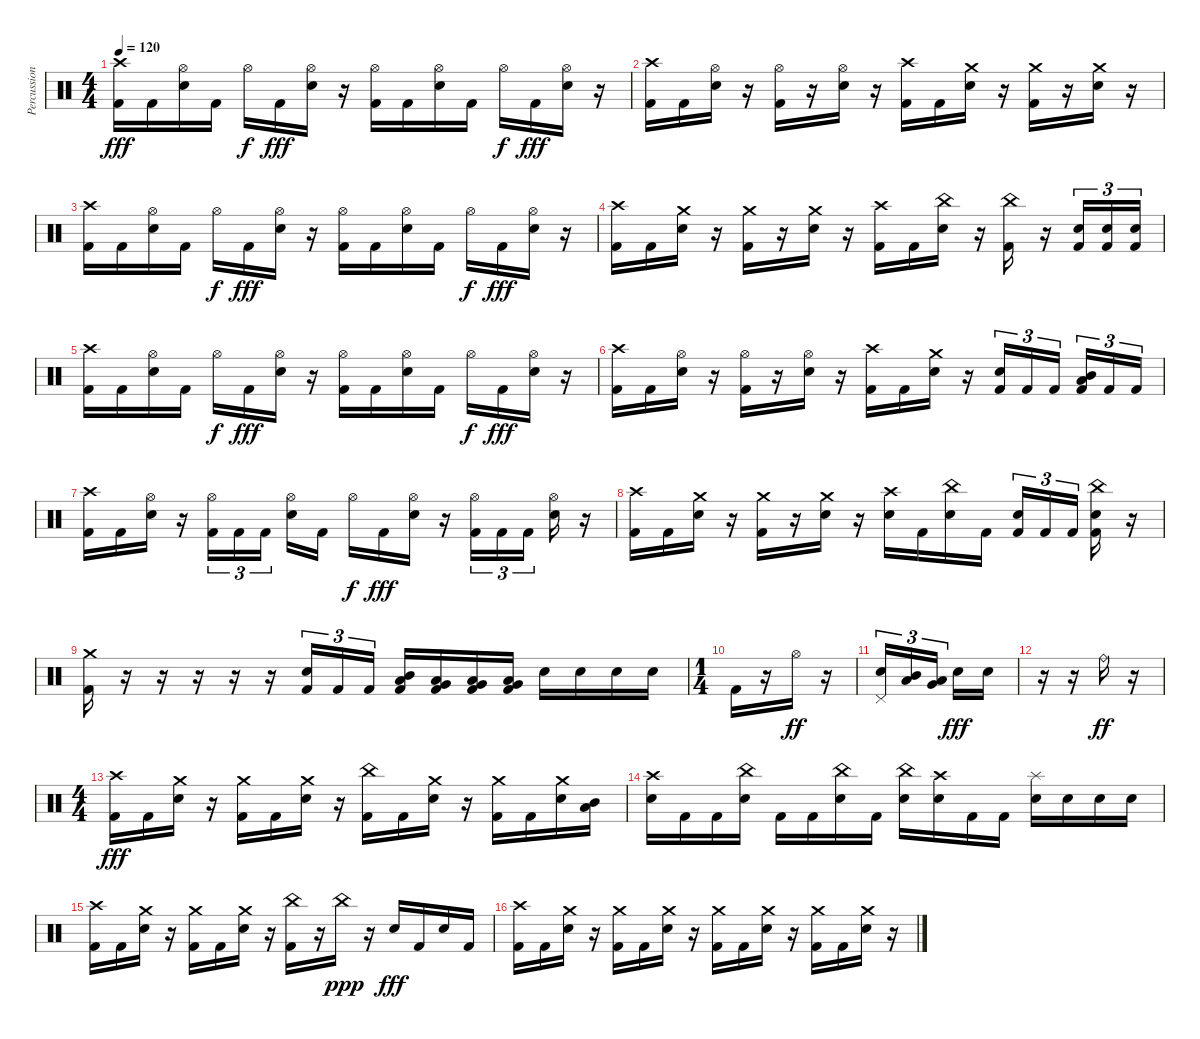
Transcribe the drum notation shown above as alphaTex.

\track ("Percussion" "Percussion") {instrument percussion}
\staff {score}
\articulation defaults
\ts (4 4)
\tempo 120
\clef neutral
\ks c
("Crash high (hit)" "Kick (hit) 2").16{dy fff} "Kick (hit) 2".16 ("Hi-Hat (open)" "Electric Snare (hit)").16 "Kick (hit) 2".16 "Hi-Hat (open)".16{dy f} "Kick (hit) 2".16{dy fff} ("Hi-Hat (open)" "Electric Snare (hit)").16 r.16 ("Hi-Hat (open)" "Kick (hit) 2").16 "Kick (hit) 2".16 ("Hi-Hat (open)" "Electric Snare (hit)").16 "Kick (hit) 2".16 "Hi-Hat (open)".16{dy f} "Kick (hit) 2".16{dy fff} ("Hi-Hat (open)" "Electric Snare (hit)").16 r.16 |
("Crash high (hit)" "Kick (hit) 2").16 "Kick (hit) 2".16 ("Hi-Hat (open)" "Electric Snare (hit)").16 r.16 ("Hi-Hat (open)" "Kick (hit) 2").16 r.16 ("Hi-Hat (open)" "Electric Snare (hit)").16 r.16 ("Crash high (hit)" "Kick (hit) 2").16 "Kick (hit) 2".16 ("Crash medium (hit)" "Electric Snare (hit)").16 r.16 ("Crash medium (hit)" "Kick (hit) 2").16 r.16 ("Crash medium (hit)" "Electric Snare (hit)").16 r.16 |
("Crash high (hit)" "Kick (hit) 2").16 "Kick (hit) 2".16 ("Hi-Hat (open)" "Electric Snare (hit)").16 "Kick (hit) 2".16 "Hi-Hat (open)".16{dy f} "Kick (hit) 2".16{dy fff} ("Hi-Hat (open)" "Electric Snare (hit)").16 r.16 ("Hi-Hat (open)" "Kick (hit) 2").16 "Kick (hit) 2".16 ("Hi-Hat (open)" "Electric Snare (hit)").16 "Kick (hit) 2".16 "Hi-Hat (open)".16{dy f} "Kick (hit) 2".16{dy fff} ("Hi-Hat (open)" "Electric Snare (hit)").16 r.16 |
("Crash high (hit)" "Kick (hit) 2").16 "Kick (hit) 2".16 ("Crash medium (hit)" "Electric Snare (hit)").16 r.16 ("Crash medium (hit)" "Kick (hit) 2").16 r.16 ("Crash medium (hit)" "Electric Snare (hit)").16 r.16 ("Crash high (hit)" "Kick (hit) 2").16 "Kick (hit) 2".16 ("China (hit)" "Electric Snare (hit)").16 r.16 ("China (hit)" "Kick (hit) 2").16 r.16 ("Electric Snare (hit)" "Kick (hit) 2").16{tu (3 2)} ("Electric Snare (hit)" "Kick (hit) 2").16{tu (3 2)} ("Electric Snare (hit)" "Kick (hit) 2").16{tu (3 2)} |
("Crash high (hit)" "Kick (hit) 2").16 "Kick (hit) 2".16 ("Hi-Hat (open)" "Electric Snare (hit)").16 "Kick (hit) 2".16 "Hi-Hat (open)".16{dy f} "Kick (hit) 2".16{dy fff} ("Hi-Hat (open)" "Electric Snare (hit)").16 r.16 ("Hi-Hat (open)" "Kick (hit) 2").16 "Kick (hit) 2".16 ("Hi-Hat (open)" "Electric Snare (hit)").16 "Kick (hit) 2".16 "Hi-Hat (open)".16{dy f} "Kick (hit) 2".16{dy fff} ("Hi-Hat (open)" "Electric Snare (hit)").16 r.16 |
("Crash high (hit)" "Kick (hit) 2").16 "Kick (hit) 2".16 ("Hi-Hat (open)" "Electric Snare (hit)").16 r.16 ("Hi-Hat (open)" "Kick (hit) 2").16 r.16 ("Hi-Hat (open)" "Electric Snare (hit)").16 r.16 ("Crash high (hit)" "Kick (hit) 2").16 "Kick (hit) 2".16 ("Crash medium (hit)" "Electric Snare (hit)").16 r.16 ("Electric Snare (hit)" "Kick (hit) 2").16{tu (3 2)} "Kick (hit) 2".16{tu (3 2)} "Kick (hit) 2".16{tu (3 2) beam splitsecondary} ("Low Tom (hit)" "Mid Tom (hit)" "Kick (hit) 2").16{tu (3 2)} "Kick (hit) 2".16{tu (3 2)} "Kick (hit) 2".16{tu (3 2)} |
("Crash high (hit)" "Kick (hit) 2").16 "Kick (hit) 2".16 ("Hi-Hat (open)" "Electric Snare (hit)").16 r.16 ("Hi-Hat (open)" "Kick (hit) 2").16{tu (3 2)} "Kick (hit) 2".16{tu (3 2)} "Kick (hit) 2".16{tu (3 2) beam splitsecondary} ("Hi-Hat (open)" "Electric Snare (hit)").16 "Kick (hit) 2".16 "Hi-Hat (open)".16{dy f} "Kick (hit) 2".16{dy fff} ("Hi-Hat (open)" "Electric Snare (hit)").16 r.16 ("Hi-Hat (open)" "Kick (hit) 2").16{tu (3 2)} "Kick (hit) 2".16{tu (3 2)} "Kick (hit) 2".16{tu (3 2) beam splitsecondary} ("Hi-Hat (open)" "Electric Snare (hit)").16 r.16 |
("Crash high (hit)" "Kick (hit) 2").16 "Kick (hit) 2".16 ("Crash medium (hit)" "Electric Snare (hit)").16 r.16 ("Crash medium (hit)" "Kick (hit) 2").16 r.16 ("Crash medium (hit)" "Electric Snare (hit)").16 r.16 ("Crash high (hit)" "Electric Snare (hit)").16 "Kick (hit) 2".16 ("China (hit)" "Electric Snare (hit)").16 "Kick (hit) 2".16 ("Electric Snare (hit)" "Kick (hit) 2").16{tu (3 2)} "Kick (hit) 2".16{tu (3 2)} "Kick (hit) 2".16{tu (3 2) beam splitsecondary} ("China (hit)" "Electric Snare (hit)" "Kick (hit) 2").16 r.16 |
("Crash medium (hit)" "Kick (hit) 2").16 r.16 r.16 r.16 r.16 r.16 ("Electric Snare (hit)" "Kick (hit) 2").16{tu (3 2)} "Kick (hit) 2".16{tu (3 2)} "Kick (hit) 2".16{tu (3 2)} ("Low Tom (hit)" "Mid Tom (hit)" "Kick (hit) 2").16 ("Low Tom (hit)" "Very Low Tom (hit)" "Kick (hit) 2").16 ("Low Floor Tom (hit)" "Very Low Tom (hit)" "Kick (hit) 2").16 ("Low Floor Tom (hit)" "Very Low Tom (hit)" "Kick (hit) 2").16 "Electric Snare (hit)".16 "Electric Snare (hit)".16 "Electric Snare (hit)".16 "Electric Snare (hit)".16 |
\ts (1 4)
"Kick (hit) 2".16 r.16 "Hi-Hat (open)".16{dy ff} r.16 |
("Pedal Hi-Hat (hit)" "Electric Snare (hit)").16{tu (3 2)} ("Low Tom (hit)" "Mid Tom (hit)").16{tu (3 2)} ("Very Low Tom (hit)" "Low Tom (hit)").16{tu (3 2) beam splitsecondary} "Electric Snare (hit)".16{dy fff} "Electric Snare (hit)".16 |
r.16 r.16 "Ride (bell)".16{dy ff} r.16 |
\ts (4 4)
("Crash high (hit)" "Kick (hit) 2").16{dy fff} "Kick (hit) 2".16 ("Crash medium (hit)" "Electric Snare (hit)").16 r.16 ("Crash medium (hit)" "Kick (hit) 2").16 "Kick (hit) 2".16 ("Crash medium (hit)" "Electric Snare (hit)").16 r.16 ("China (hit)" "Kick (hit) 2").16 "Kick (hit) 2".16 ("Crash medium (hit)" "Electric Snare (hit)").16 r.16 ("Crash medium (hit)" "Kick (hit) 2").16 "Kick (hit) 2".16 ("Crash medium (hit)" "Electric Snare (hit)").16 ("Low Tom (hit)" "Mid Tom (hit)").16 |
("Crash high (hit)" "Electric Snare (hit)").16 "Kick (hit) 2".16 "Kick (hit) 2".16 ("China (hit)" "Electric Snare (hit)").16 "Kick (hit) 2".16 "Kick (hit) 2".16 ("China (hit)" "Electric Snare (hit)").16 "Kick (hit) 2".16 ("China (hit)" "Electric Snare (hit)").16 ("Crash high (hit)" "Electric Snare (hit)").16 "Kick (hit) 2".16 "Kick (hit) 2".16 ("Splash (hit)" "Electric Snare (hit)").16 "Electric Snare (hit)".16 "Electric Snare (hit)".16 "Electric Snare (hit)".16 |
("Crash high (hit)" "Kick (hit) 2").16 "Kick (hit) 2".16 ("Crash medium (hit)" "Electric Snare (hit)").16 r.16 ("Crash medium (hit)" "Kick (hit) 2").16 "Kick (hit) 2".16 ("Crash medium (hit)" "Electric Snare (hit)").16 r.16 ("China (hit)" "Kick (hit) 2").16 r.16 "China (hit)".16{dy ppp} r.16 "Electric Snare (hit)".16{dy fff} "Kick (hit) 2".16 "Electric Snare (hit)".16 "Kick (hit) 2".16 |
("Crash high (hit)" "Kick (hit) 2").16 "Kick (hit) 2".16 ("Crash medium (hit)" "Electric Snare (hit)").16 r.16 ("Crash medium (hit)" "Kick (hit) 2").16 "Kick (hit) 2".16 ("Crash medium (hit)" "Electric Snare (hit)").16 r.16 ("Crash medium (hit)" "Kick (hit) 2").16 "Kick (hit) 2".16 ("Crash medium (hit)" "Electric Snare (hit)").16 r.16 ("Crash medium (hit)" "Kick (hit) 2").16 "Kick (hit) 2".16 ("Crash medium (hit)" "Electric Snare (hit)").16 r.16
